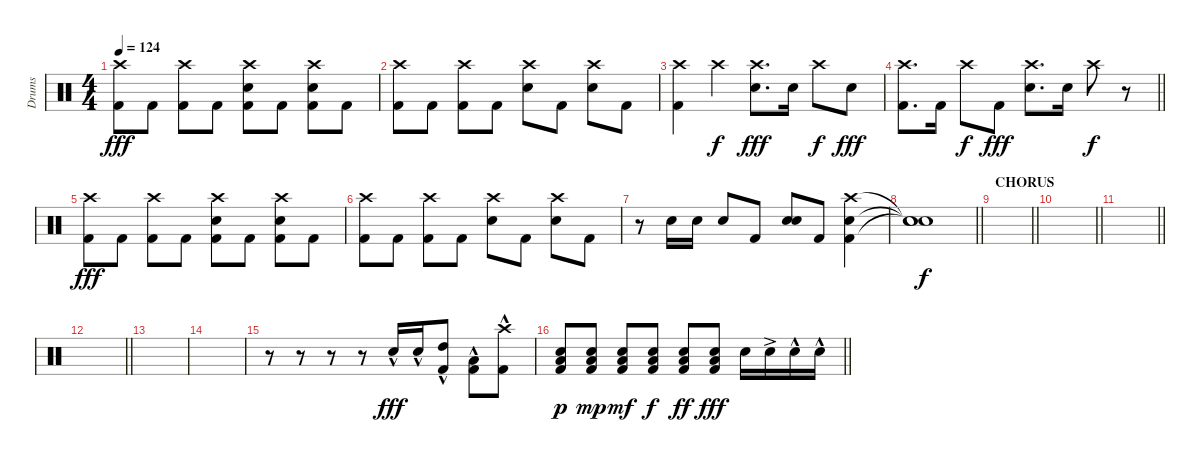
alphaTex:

\track ("Drums" "Drums") {instrument percussion}
\staff {score}
\articulation defaults
\ts (4 4)
\section ("" "")
\tempo 124
\clef neutral
\ks c
("Crash high (hit)" "Kick (hit) 2").8{dy fff} "Kick (hit) 2".8 ("Crash high (hit)" "Kick (hit) 2").8 "Kick (hit) 2".8 ("Crash high (hit)" "Electric Snare (hit)" "Kick (hit) 2").8 "Kick (hit) 2".8 ("Crash high (hit)" "Electric Snare (hit)" "Kick (hit) 2").8 "Kick (hit) 2".8 |
("Crash high (hit)" "Kick (hit) 2").8 "Kick (hit) 2".8 ("Crash high (hit)" "Kick (hit) 2").8 "Kick (hit) 2".8 ("Crash high (hit)" "Electric Snare (hit)").8 "Kick (hit) 2".8 ("Crash high (hit)" "Electric Snare (hit)").8 "Kick (hit) 2".8 |
("Crash high (hit)" "Kick (hit) 2").4 "Crash high (hit)".4{dy f} ("Crash high (hit)" "Electric Snare (hit)").8{d dy fff} "Electric Snare (hit)".16 "Crash high (hit)".8{dy f} "Electric Snare (hit)".8{dy fff} |
\barLineRight lightlight
("Crash high (hit)" "Kick (hit) 2").8{d} "Kick (hit) 2".16 "Crash high (hit)".8{dy f} "Kick (hit) 2".8{dy fff} ("Crash high (hit)" "Electric Snare (hit)").8{d} "Electric Snare (hit)".16 "Crash high (hit)".8{dy f} r.8 |
\section ("" "")
("Crash high (hit)" "Kick (hit) 2").8{dy fff} "Kick (hit) 2".8 ("Crash high (hit)" "Kick (hit) 2").8 "Kick (hit) 2".8 ("Crash high (hit)" "Electric Snare (hit)" "Kick (hit) 2").8 "Kick (hit) 2".8 ("Crash high (hit)" "Electric Snare (hit)" "Kick (hit) 2").8 "Kick (hit) 2".8 |
("Crash high (hit)" "Kick (hit) 2").8 "Kick (hit) 2".8 ("Crash high (hit)" "Kick (hit) 2").8 "Kick (hit) 2".8 ("Crash high (hit)" "Electric Snare (hit)").8 "Kick (hit) 2".8 ("Crash high (hit)" "Electric Snare (hit)").8 "Kick (hit) 2".8 |
r.8 "Electric Snare (hit)".16 "Electric Snare (hit)".16 "Electric Snare (hit)".8 "Kick (hit) 2".8 ("Electric Snare (hit)" "Electric Snare (hit)").8{bd 120} "Kick (hit) 2".8 ("Crash high (hit)" "Electric Snare (hit)" "Kick (hit) 2").4 |
\barLineRight lightlight
("Snare (hit)"{t} "Snare (hit)"{t} "Snare (hit)"{t}).1{dy f} |
\section ("" "CHORUS")
\barLineRight lightlight
|
\barLineRight lightlight
|
\barLineRight lightlight
|
\barLineRight lightlight
|
\section ("" "")
|
|
r.8 r.8 r.8 r.8 "Electric Snare (hit)"{hac}.16{dy fff} "Electric Snare (hit)"{hac}.16 ("High Tom (hit)"{hac} "Kick (hit) 2"{hac}).8 ("Low Tom (hit)"{hac} "Kick (hit) 2"{hac}).8 ("Crash high (hit)"{hac} "Kick (hit) 2"{hac}).8 |
\barLineRight lightlight
("Low Floor Tom (hit)" "Electric Snare (hit)" "Kick (hit) 2").8{dy p} ("Low Floor Tom (hit)" "Electric Snare (hit)" "Kick (hit) 2").8{dy mp} ("Low Floor Tom (hit)" "Electric Snare (hit)" "Kick (hit) 2").8{dy mf} ("Low Floor Tom (hit)" "Electric Snare (hit)" "Kick (hit) 2").8{dy f} ("Low Floor Tom (hit)" "Electric Snare (hit)" "Kick (hit) 2").8{dy ff} ("Low Floor Tom (hit)" "Electric Snare (hit)" "Kick (hit) 2").8{dy fff} "Electric Snare (hit)".16 "Electric Snare (hit)"{ac}.16 "Electric Snare (hit)"{hac}.16 "Electric Snare (hit)"{hac}.16
